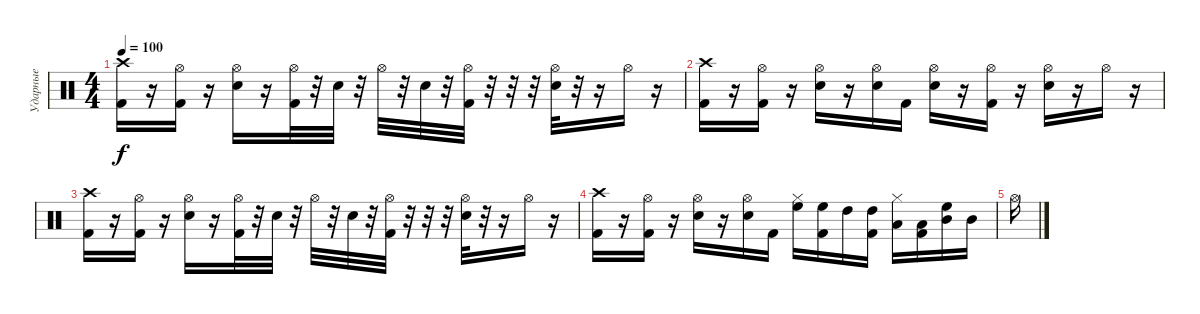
\track ("Ударные" "Ударные") {instrument percussion}
\staff {score}
\articulation defaults
\ts (4 4)
\tempo 100
\clef neutral
\ks c
("Crash high (hit)" "Kick (hit) 2").16{dy f} r.16 ("Hi-Hat (open)" "Kick (hit) 2").16 r.16 ("Hi-Hat (open)" "Electric Snare (hit)").16 r.16 ("Hi-Hat (open)" "Kick (hit) 2").32 r.32 "Electric Snare (hit)".32 r.32 "Hi-Hat (open)".32 r.32 "Electric Snare (hit)".32 r.32 ("Hi-Hat (open)" "Kick (hit) 2").32 r.32 r.32 r.32 ("Hi-Hat (open)" "Electric Snare (hit)").32 r.32 r.16 "Hi-Hat (open)".16 r.16 |
("Crash high (hit)" "Kick (hit) 2").16 r.16 ("Hi-Hat (open)" "Kick (hit) 2").16 r.16 ("Hi-Hat (open)" "Electric Snare (hit)").16 r.16 ("Hi-Hat (open)" "Electric Snare (hit)").16 "Kick (hit) 2".16 ("Hi-Hat (open)" "Electric Snare (hit)").16 r.16 ("Hi-Hat (open)" "Kick (hit) 2").16 r.16 ("Hi-Hat (open)" "Electric Snare (hit)").16 r.16 "Hi-Hat (open)".16 r.16 |
("Crash high (hit)" "Kick (hit) 2").16 r.16 ("Hi-Hat (open)" "Kick (hit) 2").16 r.16 ("Hi-Hat (open)" "Electric Snare (hit)").16 r.16 ("Hi-Hat (open)" "Kick (hit) 2").32 r.32 "Electric Snare (hit)".32 r.32 "Hi-Hat (open)".32 r.32 "Electric Snare (hit)".32 r.32 ("Hi-Hat (open)" "Kick (hit) 2").32 r.32 r.32 r.32 ("Hi-Hat (open)" "Electric Snare (hit)").32 r.32 r.16 "Hi-Hat (open)".16 r.16 |
("Crash high (hit)" "Kick (hit) 2").16 r.16 ("Hi-Hat (open)" "Kick (hit) 2").16 r.16 ("Hi-Hat (open)" "Electric Snare (hit)").16 r.16 ("Hi-Hat (open)" "Electric Snare (hit)").16 "Kick (hit) 2".16 ("Hi-Hat (closed)" "High Floor Tom (hit)").16 ("High Floor Tom (hit)" "Kick (hit) 2").16 "High Tom (hit)".16 ("High Tom (hit)" "Kick (hit) 2").16 ("Hi-Hat (closed)" "Low Tom (hit)").16 ("Low Tom (hit)" "Kick (hit) 2").16 ("High Floor Tom (hit)" "Mid Tom (hit)").16 "Mid Tom (hit)".16 |
"Hi-Hat (open)".16
